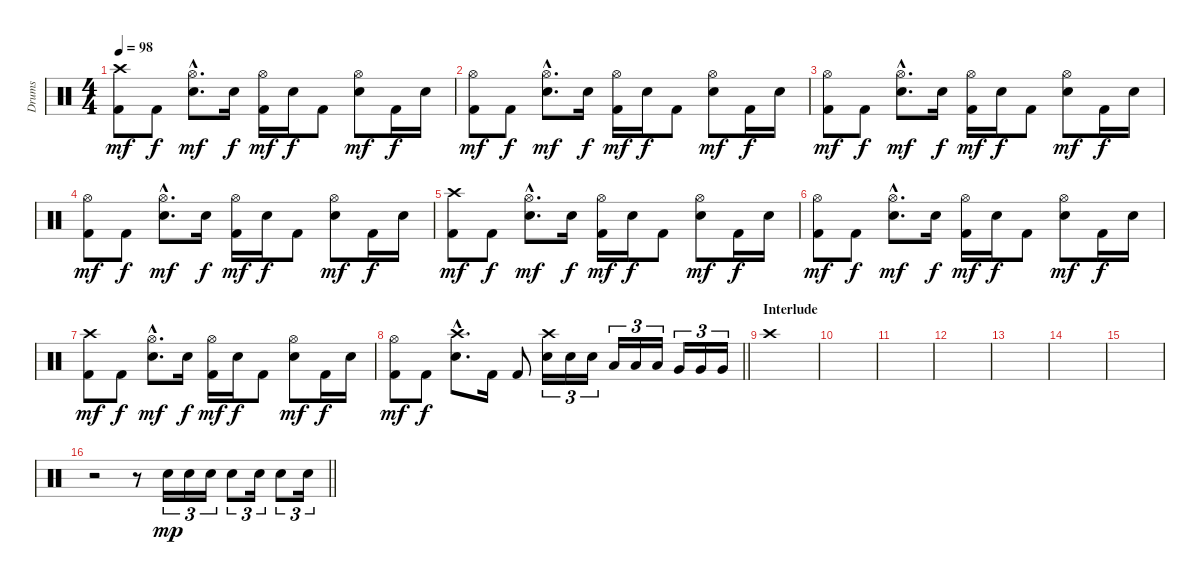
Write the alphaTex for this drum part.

\track ("Drums" "Drums") {instrument percussion}
\staff {score}
\articulation defaults
\ts (4 4)
\tempo 98
\clef neutral
\ks c
("Crash high (hit)" "Kick (hit) 2").8{dy mf} "Kick (hit) 2".8{dy f} ("Hi-Hat (open)"{hac} "Snare (hit) 2"{hac}).8{d dy mf} "Snare (hit) 2".16{dy f} ("Hi-Hat (open)" "Kick (hit) 2").16{dy mf} "Snare (hit) 2".16{dy f} "Kick (hit) 2".8 ("Hi-Hat (open)" "Snare (hit) 2").8{dy mf} "Kick (hit) 2".16{dy f} "Snare (hit) 2".16 |
("Hi-Hat (open)" "Kick (hit) 2").8{dy mf} "Kick (hit) 2".8{dy f} ("Hi-Hat (open)"{hac} "Snare (hit) 2"{hac}).8{d dy mf} "Snare (hit) 2".16{dy f} ("Hi-Hat (open)" "Kick (hit) 2").16{dy mf} "Snare (hit) 2".16{dy f} "Kick (hit) 2".8 ("Hi-Hat (open)" "Snare (hit) 2").8{dy mf} "Kick (hit) 2".16{dy f} "Snare (hit) 2".16 |
("Hi-Hat (open)" "Kick (hit) 2").8{dy mf} "Kick (hit) 2".8{dy f} ("Hi-Hat (open)"{hac} "Snare (hit) 2"{hac}).8{d dy mf} "Snare (hit) 2".16{dy f} ("Hi-Hat (open)" "Kick (hit) 2").16{dy mf} "Snare (hit) 2".16{dy f} "Kick (hit) 2".8 ("Hi-Hat (open)" "Snare (hit) 2").8{dy mf} "Kick (hit) 2".16{dy f} "Snare (hit) 2".16 |
("Hi-Hat (open)" "Kick (hit) 2").8{dy mf} "Kick (hit) 2".8{dy f} ("Hi-Hat (open)"{hac} "Snare (hit) 2"{hac}).8{d dy mf} "Snare (hit) 2".16{dy f} ("Hi-Hat (open)" "Kick (hit) 2").16{dy mf} "Snare (hit) 2".16{dy f} "Kick (hit) 2".8 ("Hi-Hat (open)" "Snare (hit) 2").8{dy mf} "Kick (hit) 2".16{dy f} "Snare (hit) 2".16 |
("Crash high (hit)" "Kick (hit) 2").8{dy mf} "Kick (hit) 2".8{dy f} ("Hi-Hat (open)"{hac} "Snare (hit) 2"{hac}).8{d dy mf} "Snare (hit) 2".16{dy f} ("Hi-Hat (open)" "Kick (hit) 2").16{dy mf} "Snare (hit) 2".16{dy f} "Kick (hit) 2".8 ("Hi-Hat (open)" "Snare (hit) 2").8{dy mf} "Kick (hit) 2".16{dy f} "Snare (hit) 2".16 |
("Hi-Hat (open)" "Kick (hit) 2").8{dy mf} "Kick (hit) 2".8{dy f} ("Hi-Hat (open)"{hac} "Snare (hit) 2"{hac}).8{d dy mf} "Snare (hit) 2".16{dy f} ("Hi-Hat (open)" "Kick (hit) 2").16{dy mf} "Snare (hit) 2".16{dy f} "Kick (hit) 2".8 ("Hi-Hat (open)" "Snare (hit) 2").8{dy mf} "Kick (hit) 2".16{dy f} "Snare (hit) 2".16 |
("Crash high (hit)" "Kick (hit) 2").8{dy mf} "Kick (hit) 2".8{dy f} ("Hi-Hat (open)"{hac} "Snare (hit) 2"{hac}).8{d dy mf} "Snare (hit) 2".16{dy f} ("Hi-Hat (open)" "Kick (hit) 2").16{dy mf} "Snare (hit) 2".16{dy f} "Kick (hit) 2".8 ("Hi-Hat (open)" "Snare (hit) 2").8{dy mf} "Kick (hit) 2".16{dy f} "Snare (hit) 2".16 |
\barLineRight lightlight
("Hi-Hat (open)" "Kick (hit) 2").8{dy mf} "Kick (hit) 2".8{dy f} ("Crash high (hit)"{hac} "Snare (hit) 2"{hac}).8{d} "Kick (hit) 2".16 "Kick (hit) 2".8 ("Crash high (hit)" "Snare (hit) 2").16{tu (3 2)} "Snare (hit) 2".16{tu (3 2)} "Snare (hit) 2".16{tu (3 2)} "Low Tom (hit)".16{tu (3 2)} "Low Tom (hit)".16{tu (3 2)} "Low Tom (hit)".16{tu (3 2)} "Very Low Tom (hit)".16{tu (3 2)} "Very Low Tom (hit)".16{tu (3 2)} "Very Low Tom (hit)".16{tu (3 2)} |
\section ("" "Interlude")
"Crash high (hit)".1 |
|
|
|
|
|
|
\barLineRight lightlight
r.2 r.8 "Snare (hit) 2".16{tu (3 2) dy mp} "Snare (hit) 2".16{tu (3 2)} "Snare (hit) 2".16{tu (3 2)} "Snare (hit) 2".8{tu (3 2)} "Snare (hit) 2".16{tu (3 2)} "Snare (hit) 2".8{tu (3 2)} "Snare (hit) 2".16{tu (3 2)}
